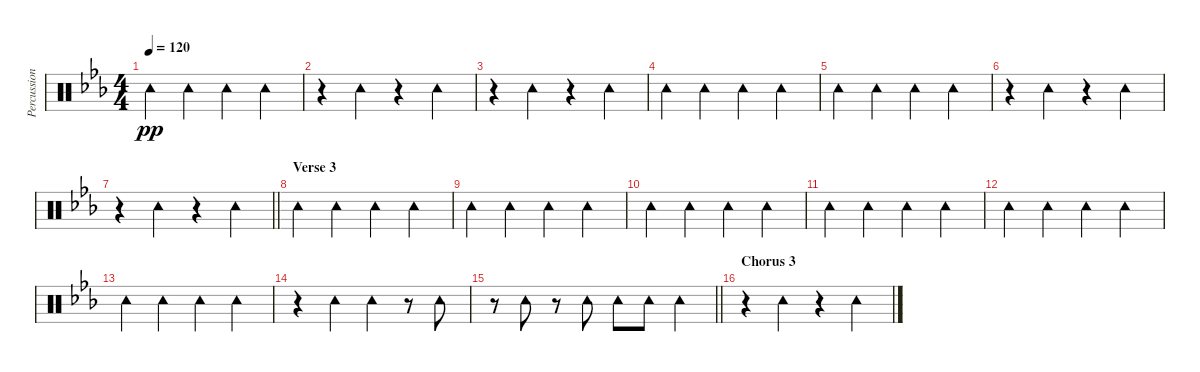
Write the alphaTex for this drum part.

\track ("Percussion" "Percussion") {instrument percussion}
\staff {score}
\articulation defaults
\ts (4 4)
\tempo 120
\clef neutral
\ks cminor "Tambourine (hit)".4{dy pp} "Tambourine (hit)".4 "Tambourine (hit)".4 "Tambourine (hit)".4
|
r.4 "Tambourine (hit)".4 r.4 "Tambourine (hit)".4 |
r.4 "Tambourine (hit)".4 r.4 "Tambourine (hit)".4 |
"Tambourine (hit)".4 "Tambourine (hit)".4 "Tambourine (hit)".4 "Tambourine (hit)".4 |
"Tambourine (hit)".4 "Tambourine (hit)".4 "Tambourine (hit)".4 "Tambourine (hit)".4 |
r.4 "Tambourine (hit)".4 r.4 "Tambourine (hit)".4 |
\barLineRight lightlight
r.4 "Tambourine (hit)".4 r.4 "Tambourine (hit)".4 |
\section ("" "Verse 3")
"Tambourine (hit)".4 "Tambourine (hit)".4 "Tambourine (hit)".4 "Tambourine (hit)".4 |
"Tambourine (hit)".4 "Tambourine (hit)".4 "Tambourine (hit)".4 "Tambourine (hit)".4 |
"Tambourine (hit)".4 "Tambourine (hit)".4 "Tambourine (hit)".4 "Tambourine (hit)".4 |
"Tambourine (hit)".4 "Tambourine (hit)".4 "Tambourine (hit)".4 "Tambourine (hit)".4 |
"Tambourine (hit)".4 "Tambourine (hit)".4 "Tambourine (hit)".4 "Tambourine (hit)".4 |
"Tambourine (hit)".4 "Tambourine (hit)".4 "Tambourine (hit)".4 "Tambourine (hit)".4 |
r.4 "Tambourine (hit)".4 "Tambourine (hit)".4 r.8 "Tambourine (hit)".8 |
\barLineRight lightlight
r.8 "Tambourine (hit)".8 r.8 "Tambourine (hit)".8 "Tambourine (hit)".8 "Tambourine (hit)".8 "Tambourine (hit)".4 |
\section ("" "Chorus 3")
r.4 "Tambourine (hit)".4 r.4 "Tambourine (hit)".4
